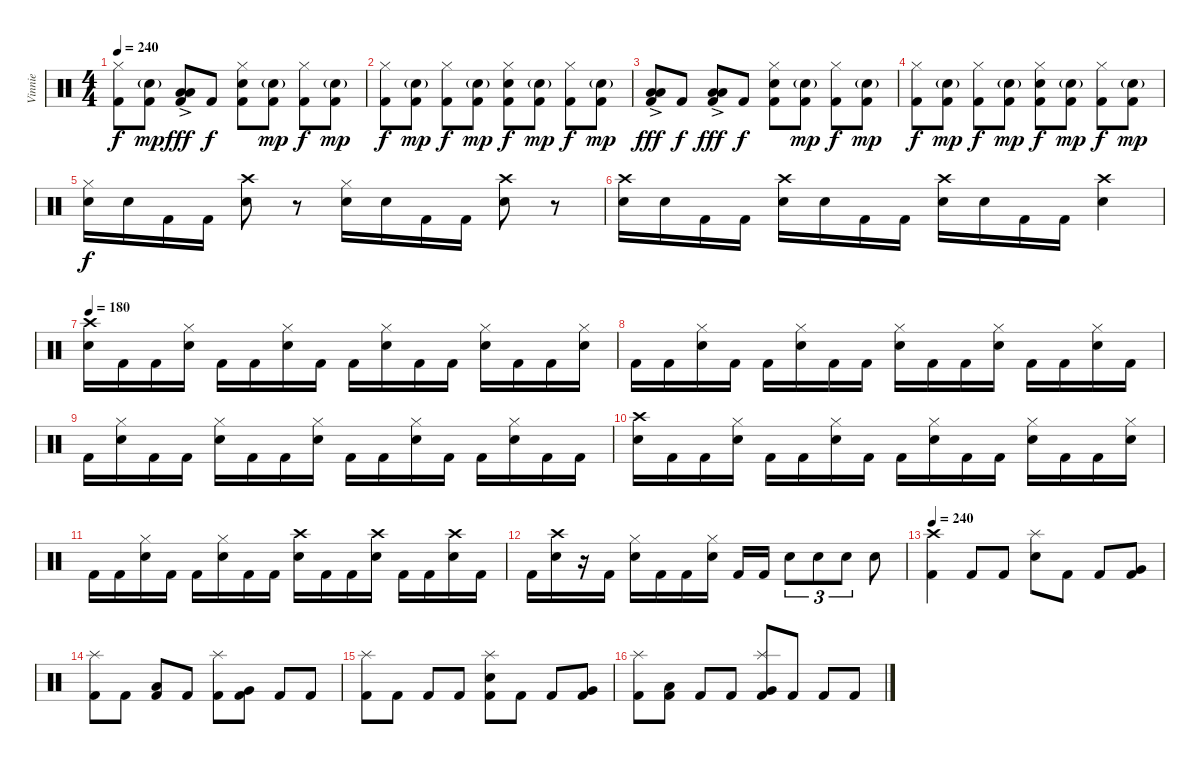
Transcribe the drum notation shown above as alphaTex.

\track ("Vinnie" "Vinnie") {instrument percussion}
\staff {score}
\articulation defaults
\ts (4 4)
\tempo 240
\clef neutral
\ks c
("Hi-Hat (closed)" "Kick (hit) 2").8{dy f} ("Electric Snare (hit)"{g} "Kick (hit) 2").8{dy mp} ("Low Tom (hit)"{ac} "Low Tom (hit)"{ac} "Kick (hit) 2").8{dy fff} "Kick (hit) 2".8{dy f} ("Hi-Hat (closed)" "Electric Snare (hit)" "Kick (hit) 2").8 ("Electric Snare (hit)"{g} "Kick (hit) 2").8{dy mp} ("Hi-Hat (closed)" "Kick (hit) 2").8{dy f} ("Electric Snare (hit)"{g} "Kick (hit) 2").8{dy mp} |
("Hi-Hat (closed)" "Kick (hit) 2").8{dy f} ("Electric Snare (hit)"{g} "Kick (hit) 2").8{dy mp} ("Hi-Hat (closed)" "Kick (hit) 2").8{dy f} ("Electric Snare (hit)"{g} "Kick (hit) 2").8{dy mp} ("Hi-Hat (closed)" "Electric Snare (hit)" "Kick (hit) 2").8{dy f} ("Electric Snare (hit)"{g} "Kick (hit) 2").8{dy mp} ("Hi-Hat (closed)" "Kick (hit) 2").8{dy f} ("Electric Snare (hit)"{g} "Kick (hit) 2").8{dy mp} |
("Low Tom (hit)"{ac} "Low Tom (hit)"{ac} "Kick (hit) 2").8{dy fff} "Kick (hit) 2".8{dy f} ("Low Tom (hit)"{ac} "Low Tom (hit)"{ac} "Kick (hit) 2").8{dy fff} "Kick (hit) 2".8{dy f} ("Hi-Hat (closed)" "Electric Snare (hit)" "Kick (hit) 2").8 ("Electric Snare (hit)"{g} "Kick (hit) 2").8{dy mp} ("Hi-Hat (closed)" "Kick (hit) 2").8{dy f} ("Electric Snare (hit)"{g} "Kick (hit) 2").8{dy mp} |
("Hi-Hat (closed)" "Kick (hit) 2").8{dy f} ("Electric Snare (hit)"{g} "Kick (hit) 2").8{dy mp} ("Hi-Hat (closed)" "Kick (hit) 2").8{dy f} ("Electric Snare (hit)"{g} "Kick (hit) 2").8{dy mp} ("Hi-Hat (closed)" "Electric Snare (hit)" "Kick (hit) 2").8{dy f} ("Electric Snare (hit)"{g} "Kick (hit) 2").8{dy mp} ("Hi-Hat (closed)" "Kick (hit) 2").8{dy f} ("Electric Snare (hit)"{g} "Kick (hit) 2").8{dy mp} |
("Hi-Hat (closed)" "Electric Snare (hit)").16{dy f} "Electric Snare (hit)".16 "Kick (hit) 2".16 "Kick (hit) 2".16 ("Crash high (hit)" "Electric Snare (hit)").8 r.8 ("Hi-Hat (closed)" "Electric Snare (hit)").16 "Electric Snare (hit)".16 "Kick (hit) 2".16 "Kick (hit) 2".16 ("Crash high (hit)" "Electric Snare (hit)").8 r.8 |
("Crash high (hit)" "Electric Snare (hit)").16 "Electric Snare (hit)".16 "Kick (hit) 2".16 "Kick (hit) 2".16 ("Crash high (hit)" "Electric Snare (hit)").16 "Electric Snare (hit)".16 "Kick (hit) 2".16 "Kick (hit) 2".16 ("Crash high (hit)" "Electric Snare (hit)").16 "Electric Snare (hit)".16 "Kick (hit) 2".16 "Kick (hit) 2".16 ("Crash high (hit)" "Electric Snare (hit)").4 |
\tempo 180
("Crash high (hit)" "Electric Snare (hit)").16 "Kick (hit) 2".16 "Kick (hit) 2".16 ("Hi-Hat (closed)" "Electric Snare (hit)").16 "Kick (hit) 2".16 "Kick (hit) 2".16 ("Hi-Hat (closed)" "Electric Snare (hit)").16 "Kick (hit) 2".16 "Kick (hit) 2".16 ("Hi-Hat (closed)" "Electric Snare (hit)").16 "Kick (hit) 2".16 "Kick (hit) 2".16 ("Hi-Hat (closed)" "Electric Snare (hit)").16 "Kick (hit) 2".16 "Kick (hit) 2".16 ("Hi-Hat (closed)" "Electric Snare (hit)").16 |
"Kick (hit) 2".16 "Kick (hit) 2".16 ("Hi-Hat (closed)" "Electric Snare (hit)").16 "Kick (hit) 2".16 "Kick (hit) 2".16 ("Hi-Hat (closed)" "Electric Snare (hit)").16 "Kick (hit) 2".16 "Kick (hit) 2".16 ("Hi-Hat (closed)" "Electric Snare (hit)").16 "Kick (hit) 2".16 "Kick (hit) 2".16 ("Hi-Hat (closed)" "Electric Snare (hit)").16 "Kick (hit) 2".16 "Kick (hit) 2".16 ("Hi-Hat (closed)" "Electric Snare (hit)").16 "Kick (hit) 2".16 |
"Kick (hit) 2".16 ("Hi-Hat (closed)" "Electric Snare (hit)").16 "Kick (hit) 2".16 "Kick (hit) 2".16 ("Hi-Hat (closed)" "Electric Snare (hit)").16 "Kick (hit) 2".16 "Kick (hit) 2".16 ("Hi-Hat (closed)" "Electric Snare (hit)").16 "Kick (hit) 2".16 "Kick (hit) 2".16 ("Hi-Hat (closed)" "Electric Snare (hit)").16 "Kick (hit) 2".16 "Kick (hit) 2".16 ("Hi-Hat (closed)" "Electric Snare (hit)").16 "Kick (hit) 2".16 "Kick (hit) 2".16 |
("Crash high (hit)" "Electric Snare (hit)").16 "Kick (hit) 2".16 "Kick (hit) 2".16 ("Hi-Hat (closed)" "Electric Snare (hit)").16 "Kick (hit) 2".16 "Kick (hit) 2".16 ("Hi-Hat (closed)" "Electric Snare (hit)").16 "Kick (hit) 2".16 "Kick (hit) 2".16 ("Hi-Hat (closed)" "Electric Snare (hit)").16 "Kick (hit) 2".16 "Kick (hit) 2".16 ("Hi-Hat (closed)" "Electric Snare (hit)").16 "Kick (hit) 2".16 "Kick (hit) 2".16 ("Hi-Hat (closed)" "Electric Snare (hit)").16 |
"Kick (hit) 2".16 "Kick (hit) 2".16 ("Hi-Hat (closed)" "Electric Snare (hit)").16 "Kick (hit) 2".16 "Kick (hit) 2".16 ("Hi-Hat (closed)" "Electric Snare (hit)").16 "Kick (hit) 2".16 "Kick (hit) 2".16 ("Crash high (hit)" "Electric Snare (hit)").16 "Kick (hit) 2".16 "Kick (hit) 2".16 ("Crash high (hit)" "Electric Snare (hit)").16 "Kick (hit) 2".16 "Kick (hit) 2".16 ("Crash high (hit)" "Electric Snare (hit)").16 "Kick (hit) 2".16 |
"Kick (hit) 2".16 ("Crash high (hit)" "Electric Snare (hit)").16 r.16 "Kick (hit) 2".16 ("Hi-Hat (closed)" "Electric Snare (hit)").16 "Kick (hit) 2".16 "Kick (hit) 2".16 ("Hi-Hat (closed)" "Electric Snare (hit)").16 "Kick (hit) 2".16 "Kick (hit) 2".16 "Electric Snare (hit)".8{tu (3 2)} "Electric Snare (hit)".8{tu (3 2)} "Electric Snare (hit)".8{tu (3 2)} "Electric Snare (hit)".8 |
\tempo 240
("Crash high (hit)" "Kick (hit) 2").4 "Kick (hit) 2".8 "Kick (hit) 2".8 ("Splash (hit)" "Electric Snare (hit)").8 "Kick (hit) 2".8 "Kick (hit) 2".8 ("Very Low Tom (hit)" "Kick (hit) 2").8 |
("Splash (hit)" "Kick (hit) 2").8 "Kick (hit) 2".8 ("Low Tom (hit)" "Kick (hit) 2").8 "Kick (hit) 2".8 ("Splash (hit)" "Kick (hit) 2").8 ("Very Low Tom (hit)" "Kick (hit) 2").8 "Kick (hit) 2".8 "Kick (hit) 2".8 |
("Splash (hit)" "Kick (hit) 2").8 "Kick (hit) 2".8 "Kick (hit) 2".8 "Kick (hit) 2".8 ("Splash (hit)" "Electric Snare (hit)" "Kick (hit) 2").8 "Kick (hit) 2".8 "Kick (hit) 2".8 ("Very Low Tom (hit)" "Kick (hit) 2").8 |
("Splash (hit)" "Kick (hit) 2").8 ("Low Tom (hit)" "Kick (hit) 2").8 "Kick (hit) 2".8 "Kick (hit) 2".8 ("Splash (hit)" "Very Low Tom (hit)" "Kick (hit) 2").8 "Kick (hit) 2".8 "Kick (hit) 2".8 "Kick (hit) 2".8
